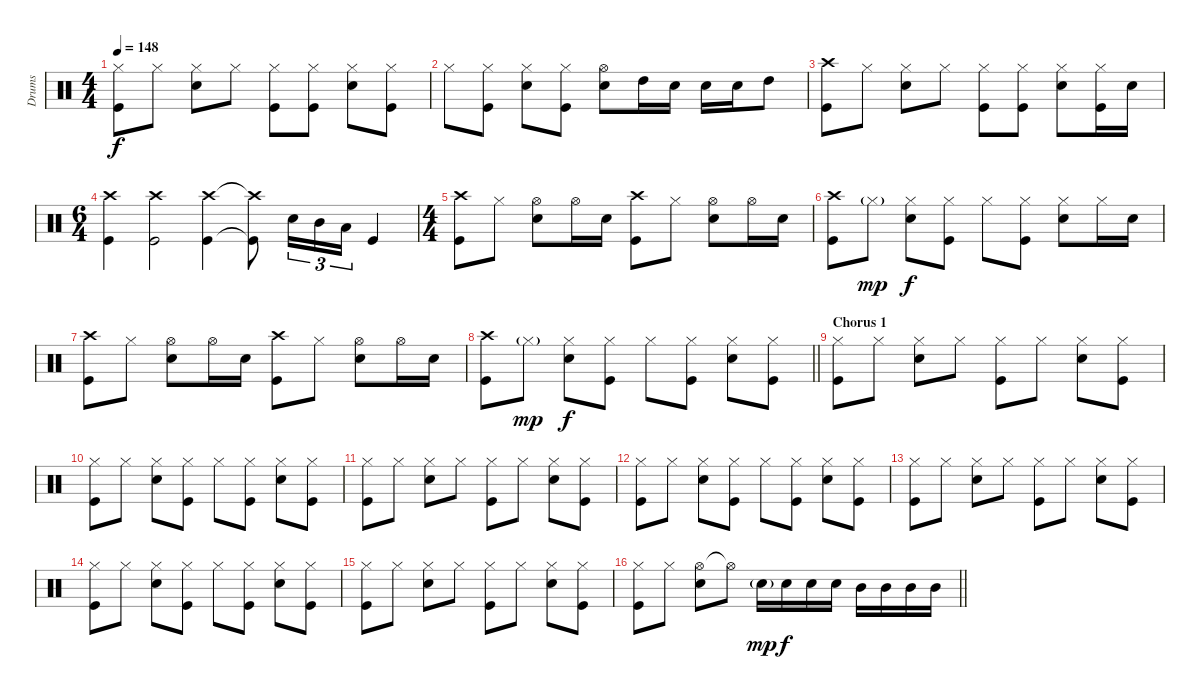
\track ("Drums" "Drums") {instrument percussion}
\staff
\articulation defaults
\ts (4 4)
\tempo 148
\clef neutral
\ks c
("Hi-Hat (closed)" "Kick (hit)").8{dy f} "Hi-Hat (closed)".8 ("Hi-Hat (closed)" "Snare (hit) 2").8 "Hi-Hat (closed)".8 ("Hi-Hat (closed)" "Kick (hit)").8 ("Hi-Hat (closed)" "Kick (hit)").8 ("Hi-Hat (closed)" "Snare (hit) 2").8 ("Hi-Hat (closed)" "Kick (hit)").8 |
"Hi-Hat (closed)".8 ("Hi-Hat (closed)" "Kick (hit)").8 ("Hi-Hat (closed)" "Snare (hit) 2").8 ("Hi-Hat (closed)" "Kick (hit)").8 ("Hi-Hat (open)" "Snare (hit) 2").8 "High Tom (hit)".16 "Snare (hit) 2".16 "Snare (hit) 2".16 "Snare (hit) 2".16 "High Tom (hit)".8 |
("Crash high (hit)" "Kick (hit)").8 "Hi-Hat (closed)".8 ("Hi-Hat (closed)" "Snare (hit) 2").8 "Hi-Hat (closed)".8 ("Hi-Hat (closed)" "Kick (hit)").8 ("Hi-Hat (closed)" "Kick (hit)").8 ("Hi-Hat (closed)" "Snare (hit) 2").8 ("Hi-Hat (closed)" "Kick (hit)").16 "Snare (hit) 2".16 |
\ts (6 4)
("Crash high (hit)" "Kick (hit)").4 ("Crash high (hit)" "Kick (hit)").2 ("Crash high (hit)" "Kick (hit)").4 ("Crash high (hit)"{t} "Kick (hit)"{t}).8 "Snare (hit) 2".16{tu (3 2)} "Mid Tom (hit)".16{tu (3 2)} "Low Tom (hit)".16{tu (3 2)} "Kick (hit)".4 |
\ts (4 4)
("Crash high (hit)" "Kick (hit)").8 "Hi-Hat (closed)".8 ("Hi-Hat (open)" "Snare (hit) 2").8 "Hi-Hat (open)".16 "Snare (hit) 2".16 ("Crash high (hit)" "Kick (hit)").8 "Hi-Hat (closed)".8 ("Hi-Hat (open)" "Snare (hit) 2").8 "Hi-Hat (open)".16 "Snare (hit) 2".16 |
("Crash high (hit)" "Kick (hit)").8 "Hi-Hat (closed)"{g}.8{dy mp} ("Hi-Hat (closed)" "Snare (hit) 2").8{dy f} ("Hi-Hat (closed)" "Kick (hit)").8 "Hi-Hat (closed)".8 ("Hi-Hat (closed)" "Kick (hit)").8 ("Hi-Hat (closed)" "Snare (hit) 2").8 "Hi-Hat (closed)".16 "Snare (hit) 2".16 |
("Crash high (hit)" "Kick (hit)").8 "Hi-Hat (closed)".8 ("Hi-Hat (open)" "Snare (hit) 2").8 "Hi-Hat (open)".16 "Snare (hit) 2".16 ("Crash high (hit)" "Kick (hit)").8 "Hi-Hat (closed)".8 ("Hi-Hat (open)" "Snare (hit) 2").8 "Hi-Hat (open)".16 "Snare (hit) 2".16 |
\barLineRight lightlight
("Crash high (hit)" "Kick (hit)").8 "Hi-Hat (closed)"{g}.8{dy mp} ("Hi-Hat (closed)" "Snare (hit) 2").8{dy f} ("Hi-Hat (closed)" "Kick (hit)").8 "Hi-Hat (closed)".8 ("Hi-Hat (closed)" "Kick (hit)").8 ("Hi-Hat (closed)" "Snare (hit) 2").8 ("Hi-Hat (closed)" "Kick (hit)").8 |
\section ("" "Chorus 1")
("Hi-Hat (closed)" "Kick (hit)").8 "Hi-Hat (closed)".8 ("Hi-Hat (closed)" "Snare (hit) 2").8 "Hi-Hat (closed)".8 ("Hi-Hat (closed)" "Kick (hit)").8 "Hi-Hat (closed)".8 ("Hi-Hat (closed)" "Snare (hit) 2").8 ("Hi-Hat (closed)" "Kick (hit)").8 |
("Hi-Hat (closed)" "Kick (hit)").8 "Hi-Hat (closed)".8 ("Hi-Hat (closed)" "Snare (hit) 2").8 ("Hi-Hat (closed)" "Kick (hit)").8 "Hi-Hat (closed)".8 ("Hi-Hat (closed)" "Kick (hit)").8 ("Hi-Hat (closed)" "Snare (hit) 2").8 ("Hi-Hat (closed)" "Kick (hit)").8 |
("Hi-Hat (closed)" "Kick (hit)").8 "Hi-Hat (closed)".8 ("Hi-Hat (closed)" "Snare (hit) 2").8 "Hi-Hat (closed)".8 ("Hi-Hat (closed)" "Kick (hit)").8 "Hi-Hat (closed)".8 ("Hi-Hat (closed)" "Snare (hit) 2").8 ("Hi-Hat (closed)" "Kick (hit)").8 |
("Hi-Hat (closed)" "Kick (hit)").8 "Hi-Hat (closed)".8 ("Hi-Hat (closed)" "Snare (hit) 2").8 ("Hi-Hat (closed)" "Kick (hit)").8 "Hi-Hat (closed)".8 ("Hi-Hat (closed)" "Kick (hit)").8 ("Hi-Hat (closed)" "Snare (hit) 2").8 ("Hi-Hat (closed)" "Kick (hit)").8 |
("Hi-Hat (closed)" "Kick (hit)").8 "Hi-Hat (closed)".8 ("Hi-Hat (closed)" "Snare (hit) 2").8 "Hi-Hat (closed)".8 ("Hi-Hat (closed)" "Kick (hit)").8 "Hi-Hat (closed)".8 ("Hi-Hat (closed)" "Snare (hit) 2").8 ("Hi-Hat (closed)" "Kick (hit)").8 |
("Hi-Hat (closed)" "Kick (hit)").8 "Hi-Hat (closed)".8 ("Hi-Hat (closed)" "Snare (hit) 2").8 ("Hi-Hat (closed)" "Kick (hit)").8 "Hi-Hat (closed)".8 ("Hi-Hat (closed)" "Kick (hit)").8 ("Hi-Hat (closed)" "Snare (hit) 2").8 ("Hi-Hat (closed)" "Kick (hit)").8 |
("Hi-Hat (closed)" "Kick (hit)").8 "Hi-Hat (closed)".8 ("Hi-Hat (closed)" "Snare (hit) 2").8 "Hi-Hat (closed)".8 ("Hi-Hat (closed)" "Kick (hit)").8 "Hi-Hat (closed)".8 ("Hi-Hat (closed)" "Snare (hit) 2").8 ("Hi-Hat (closed)" "Kick (hit)").8 |
\barLineRight lightlight
("Hi-Hat (closed)" "Kick (hit)").8 "Hi-Hat (closed)".8 ("Hi-Hat (open)" "Snare (hit) 2").8 "Hi-Hat (open)"{t}.8 "Snare (hit) 2"{g}.16{dy mp} "Snare (hit) 2".16{dy f} "Snare (hit) 2".16 "Snare (hit) 2".16 "Mid Tom (hit)".16 "Mid Tom (hit)".16 "Mid Tom (hit)".16 "Mid Tom (hit)".16
